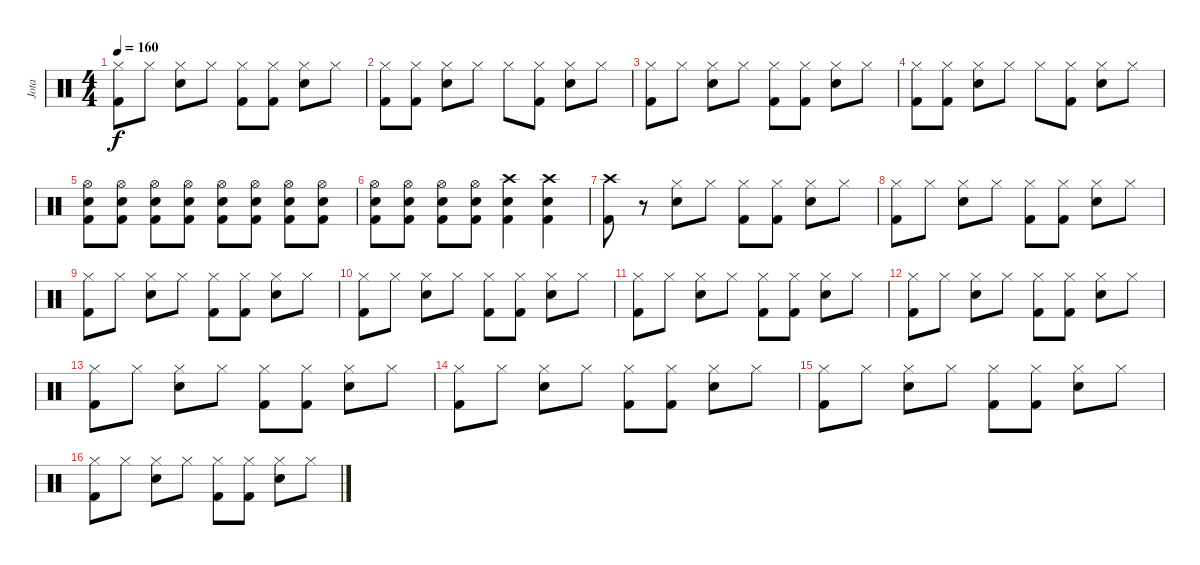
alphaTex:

\track ("Jota" "Jota") {instrument percussion}
\staff {score}
\articulation defaults
\ts (4 4)
\tempo 160
\clef neutral
\ks c
("Hi-Hat (closed)" "Kick (hit) 2").8{dy f} "Hi-Hat (closed)".8 ("Hi-Hat (closed)" "Electric Snare (hit)").8 "Hi-Hat (closed)".8 ("Hi-Hat (closed)" "Kick (hit) 2").8 ("Hi-Hat (closed)" "Kick (hit) 2").8 ("Hi-Hat (closed)" "Electric Snare (hit)").8 "Hi-Hat (closed)".8 |
("Hi-Hat (closed)" "Kick (hit) 2").8 ("Hi-Hat (closed)" "Kick (hit) 2").8 ("Hi-Hat (closed)" "Electric Snare (hit)").8 "Hi-Hat (closed)".8 "Hi-Hat (closed)".8 ("Hi-Hat (closed)" "Kick (hit) 2").8 ("Hi-Hat (closed)" "Electric Snare (hit)").8 "Hi-Hat (closed)".8 |
("Hi-Hat (closed)" "Kick (hit) 2").8 "Hi-Hat (closed)".8 ("Hi-Hat (closed)" "Electric Snare (hit)").8 "Hi-Hat (closed)".8 ("Hi-Hat (closed)" "Kick (hit) 2").8 ("Hi-Hat (closed)" "Kick (hit) 2").8 ("Hi-Hat (closed)" "Electric Snare (hit)").8 "Hi-Hat (closed)".8 |
("Hi-Hat (closed)" "Kick (hit) 2").8 ("Hi-Hat (closed)" "Kick (hit) 2").8 ("Hi-Hat (closed)" "Electric Snare (hit)").8 "Hi-Hat (closed)".8 "Hi-Hat (closed)".8 ("Hi-Hat (closed)" "Kick (hit) 2").8 ("Hi-Hat (closed)" "Electric Snare (hit)").8 "Hi-Hat (closed)".8 |
("Hi-Hat (open)" "Electric Snare (hit)" "Kick (hit) 2").8 ("Hi-Hat (open)" "Electric Snare (hit)" "Kick (hit) 2").8 ("Hi-Hat (open)" "Electric Snare (hit)" "Kick (hit) 2").8 ("Hi-Hat (open)" "Electric Snare (hit)" "Kick (hit) 2").8 ("Hi-Hat (open)" "Electric Snare (hit)" "Kick (hit) 2").8 ("Hi-Hat (open)" "Electric Snare (hit)" "Kick (hit) 2").8 ("Hi-Hat (open)" "Electric Snare (hit)" "Kick (hit) 2").8 ("Hi-Hat (open)" "Electric Snare (hit)" "Kick (hit) 2").8 |
("Hi-Hat (open)" "Electric Snare (hit)" "Kick (hit) 2").8 ("Hi-Hat (open)" "Electric Snare (hit)" "Kick (hit) 2").8 ("Hi-Hat (open)" "Electric Snare (hit)" "Kick (hit) 2").8 ("Hi-Hat (open)" "Electric Snare (hit)" "Kick (hit) 2").8 ("Crash high (hit)" "Electric Snare (hit)" "Kick (hit) 2").4 ("Crash high (hit)" "Electric Snare (hit)" "Kick (hit) 2").4 |
("Crash high (hit)" "Kick (hit) 2").8 r.8 ("Hi-Hat (closed)" "Electric Snare (hit)").8 "Hi-Hat (closed)".8 ("Hi-Hat (closed)" "Kick (hit) 2").8 ("Hi-Hat (closed)" "Kick (hit) 2").8 ("Hi-Hat (closed)" "Electric Snare (hit)").8 "Hi-Hat (closed)".8 |
("Hi-Hat (closed)" "Kick (hit) 2").8 "Hi-Hat (closed)".8 ("Hi-Hat (closed)" "Electric Snare (hit)").8 "Hi-Hat (closed)".8 ("Hi-Hat (closed)" "Kick (hit) 2").8 ("Hi-Hat (closed)" "Kick (hit) 2").8 ("Hi-Hat (closed)" "Electric Snare (hit)").8 "Hi-Hat (closed)".8 |
("Hi-Hat (closed)" "Kick (hit) 2").8 "Hi-Hat (closed)".8 ("Hi-Hat (closed)" "Electric Snare (hit)").8 "Hi-Hat (closed)".8 ("Hi-Hat (closed)" "Kick (hit) 2").8 ("Hi-Hat (closed)" "Kick (hit) 2").8 ("Hi-Hat (closed)" "Electric Snare (hit)").8 "Hi-Hat (closed)".8 |
("Hi-Hat (closed)" "Kick (hit) 2").8 "Hi-Hat (closed)".8 ("Hi-Hat (closed)" "Electric Snare (hit)").8 "Hi-Hat (closed)".8 ("Hi-Hat (closed)" "Kick (hit) 2").8 ("Hi-Hat (closed)" "Kick (hit) 2").8 ("Hi-Hat (closed)" "Electric Snare (hit)").8 "Hi-Hat (closed)".8 |
("Hi-Hat (closed)" "Kick (hit) 2").8 "Hi-Hat (closed)".8 ("Hi-Hat (closed)" "Electric Snare (hit)").8 "Hi-Hat (closed)".8 ("Hi-Hat (closed)" "Kick (hit) 2").8 ("Hi-Hat (closed)" "Kick (hit) 2").8 ("Hi-Hat (closed)" "Electric Snare (hit)").8 "Hi-Hat (closed)".8 |
("Hi-Hat (closed)" "Kick (hit) 2").8 "Hi-Hat (closed)".8 ("Hi-Hat (closed)" "Electric Snare (hit)").8 "Hi-Hat (closed)".8 ("Hi-Hat (closed)" "Kick (hit) 2").8 ("Hi-Hat (closed)" "Kick (hit) 2").8 ("Hi-Hat (closed)" "Electric Snare (hit)").8 "Hi-Hat (closed)".8 |
("Hi-Hat (closed)" "Kick (hit) 2").8 "Hi-Hat (closed)".8 ("Hi-Hat (closed)" "Electric Snare (hit)").8 "Hi-Hat (closed)".8 ("Hi-Hat (closed)" "Kick (hit) 2").8 ("Hi-Hat (closed)" "Kick (hit) 2").8 ("Hi-Hat (closed)" "Electric Snare (hit)").8 "Hi-Hat (closed)".8 |
("Hi-Hat (closed)" "Kick (hit) 2").8 "Hi-Hat (closed)".8 ("Hi-Hat (closed)" "Electric Snare (hit)").8 "Hi-Hat (closed)".8 ("Hi-Hat (closed)" "Kick (hit) 2").8 ("Hi-Hat (closed)" "Kick (hit) 2").8 ("Hi-Hat (closed)" "Electric Snare (hit)").8 "Hi-Hat (closed)".8 |
("Hi-Hat (closed)" "Kick (hit) 2").8 "Hi-Hat (closed)".8 ("Hi-Hat (closed)" "Electric Snare (hit)").8 "Hi-Hat (closed)".8 ("Hi-Hat (closed)" "Kick (hit) 2").8 ("Hi-Hat (closed)" "Kick (hit) 2").8 ("Hi-Hat (closed)" "Electric Snare (hit)").8 "Hi-Hat (closed)".8 |
("Hi-Hat (closed)" "Kick (hit) 2").8 "Hi-Hat (closed)".8 ("Hi-Hat (closed)" "Electric Snare (hit)").8 "Hi-Hat (closed)".8 ("Hi-Hat (closed)" "Kick (hit) 2").8 ("Hi-Hat (closed)" "Kick (hit) 2").8 ("Hi-Hat (closed)" "Electric Snare (hit)").8 "Hi-Hat (closed)".8
